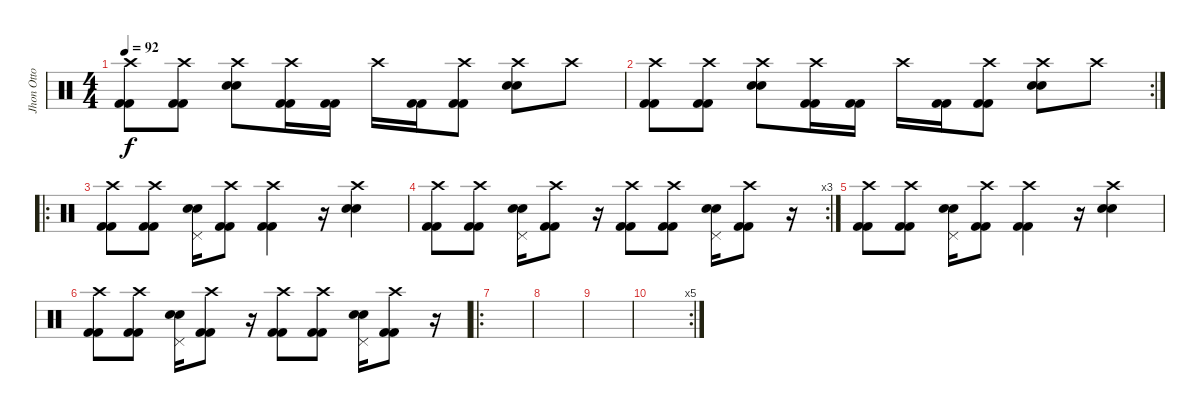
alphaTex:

\track ("Jhon Otto" "Jhon Otto") {instrument percussion}
\staff {score}
\articulation defaults
\ts (4 4)
\tempo 92
\clef neutral
\ks c
("Crash high (hit)" "Kick (hit) 2" "Kick (hit) 2").8{dy f} ("Crash high (hit)" "Kick (hit) 2" "Kick (hit) 2").8 ("Crash high (hit)" "Electric Snare (hit)" "Electric Snare (hit)").8 ("Crash high (hit)" "Kick (hit) 2" "Kick (hit) 2").16 ("Kick (hit) 2" "Kick (hit) 2").16 "Crash high (hit)".16 ("Kick (hit) 2" "Kick (hit) 2").16 ("Crash high (hit)" "Kick (hit) 2" "Kick (hit) 2").8 ("Crash high (hit)" "Electric Snare (hit)" "Electric Snare (hit)").8 "Crash high (hit)".8 |
\rc 2
("Crash high (hit)" "Kick (hit) 2" "Kick (hit) 2").8 ("Crash high (hit)" "Kick (hit) 2" "Kick (hit) 2").8 ("Crash high (hit)" "Electric Snare (hit)" "Electric Snare (hit)").8 ("Crash high (hit)" "Kick (hit) 2" "Kick (hit) 2").16 ("Kick (hit) 2" "Kick (hit) 2").16 "Crash high (hit)".16 ("Kick (hit) 2" "Kick (hit) 2").16 ("Crash high (hit)" "Kick (hit) 2" "Kick (hit) 2").8 ("Crash high (hit)" "Electric Snare (hit)" "Electric Snare (hit)").8 "Crash high (hit)".8 |
\ro
("Crash high (hit)" "Kick (hit) 2" "Kick (hit) 2").8 ("Crash high (hit)" "Kick (hit) 2" "Kick (hit) 2").8 ("Pedal Hi-Hat (hit)" "Electric Snare (hit)" "Electric Snare (hit)").16 ("Crash high (hit)" "Kick (hit) 2" "Kick (hit) 2").8 ("Crash high (hit)" "Kick (hit) 2" "Kick (hit) 2").4 r.16 ("Crash high (hit)" "Electric Snare (hit)" "Electric Snare (hit)").4 |
\rc 3
("Crash high (hit)" "Kick (hit) 2" "Kick (hit) 2").8 ("Crash high (hit)" "Kick (hit) 2" "Kick (hit) 2").8 ("Pedal Hi-Hat (hit)" "Electric Snare (hit)" "Electric Snare (hit)").16 ("Crash high (hit)" "Kick (hit) 2" "Kick (hit) 2").8 r.16 ("Crash high (hit)" "Kick (hit) 2" "Kick (hit) 2").8 ("Crash high (hit)" "Kick (hit) 2" "Kick (hit) 2").8 ("Pedal Hi-Hat (hit)" "Electric Snare (hit)" "Electric Snare (hit)").16 ("Crash high (hit)" "Kick (hit) 2" "Kick (hit) 2").8 r.16 |
("Crash high (hit)" "Kick (hit) 2" "Kick (hit) 2").8 ("Crash high (hit)" "Kick (hit) 2" "Kick (hit) 2").8 ("Pedal Hi-Hat (hit)" "Electric Snare (hit)" "Electric Snare (hit)").16 ("Crash high (hit)" "Kick (hit) 2" "Kick (hit) 2").8 ("Crash high (hit)" "Kick (hit) 2" "Kick (hit) 2").4 r.16 ("Crash high (hit)" "Electric Snare (hit)" "Electric Snare (hit)").4 |
("Crash high (hit)" "Kick (hit) 2" "Kick (hit) 2").8 ("Crash high (hit)" "Kick (hit) 2" "Kick (hit) 2").8 ("Pedal Hi-Hat (hit)" "Electric Snare (hit)" "Electric Snare (hit)").16 ("Crash high (hit)" "Kick (hit) 2" "Kick (hit) 2").8 r.16 ("Crash high (hit)" "Kick (hit) 2" "Kick (hit) 2").8 ("Crash high (hit)" "Kick (hit) 2" "Kick (hit) 2").8 ("Pedal Hi-Hat (hit)" "Electric Snare (hit)" "Electric Snare (hit)").16 ("Crash high (hit)" "Kick (hit) 2" "Kick (hit) 2").8 r.16 |
\ro
|
|
|
\rc 5
